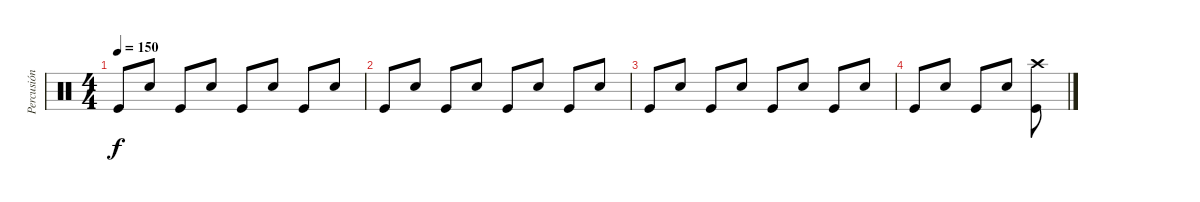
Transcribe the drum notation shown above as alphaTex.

\track ("Percusión" "Percusión") {instrument percussion}
\staff {score}
\articulation defaults
\ts (4 4)
\tempo 150
\clef neutral
\ks c "Kick (hit)".8{dy f} "Electric Snare (hit)".8 "Kick (hit)".8 "Electric Snare (hit)".8 "Kick (hit)".8 "Electric Snare (hit)".8 "Kick (hit)".8 "Electric Snare (hit)".8
|
"Kick (hit)".8 "Electric Snare (hit)".8 "Kick (hit)".8 "Electric Snare (hit)".8 "Kick (hit)".8 "Electric Snare (hit)".8 "Kick (hit)".8 "Electric Snare (hit)".8 |
"Kick (hit)".8 "Electric Snare (hit)".8 "Kick (hit)".8 "Electric Snare (hit)".8 "Kick (hit)".8 "Electric Snare (hit)".8 "Kick (hit)".8 "Electric Snare (hit)".8 |
"Kick (hit)".8 "Electric Snare (hit)".8 "Kick (hit)".8 "Electric Snare (hit)".8 ("Kick (hit)" "Crash high (hit)").8
